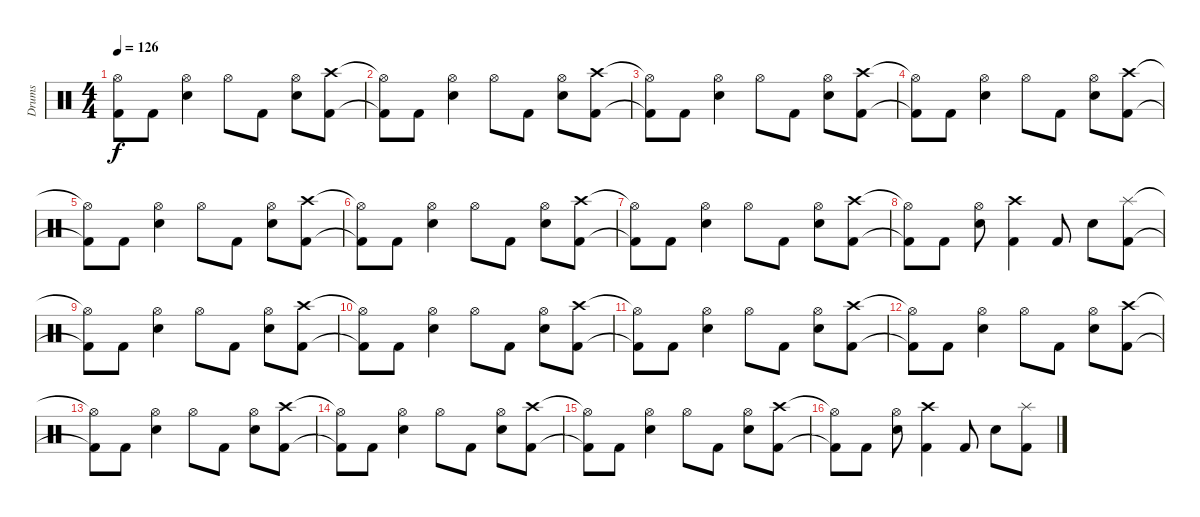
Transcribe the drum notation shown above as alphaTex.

\track ("Drums" "Drums") {instrument percussion}
\staff {score}
\articulation defaults
\ts (4 4)
\tempo 126
\clef neutral
\ks c
("Hi-Hat (open)"{t} "Kick (hit) 2"{t}).8{dy f} "Kick (hit) 2".8 ("Hi-Hat (open)" "Snare (hit) 2").4 "Hi-Hat (open)".8 "Kick (hit) 2".8 ("Hi-Hat (open)" "Snare (hit) 2").8 ("Crash high (hit)" "Kick (hit) 2").8 |
("Hi-Hat (open)"{t} "Kick (hit) 2"{t}).8 "Kick (hit) 2".8 ("Hi-Hat (open)" "Snare (hit) 2").4 "Hi-Hat (open)".8 "Kick (hit) 2".8 ("Hi-Hat (open)" "Snare (hit) 2").8 ("Crash high (hit)" "Kick (hit) 2").8 |
("Hi-Hat (open)"{t} "Kick (hit) 2"{t}).8 "Kick (hit) 2".8 ("Hi-Hat (open)" "Snare (hit) 2").4 "Hi-Hat (open)".8 "Kick (hit) 2".8 ("Hi-Hat (open)" "Snare (hit) 2").8 ("Crash high (hit)" "Kick (hit) 2").8 |
("Hi-Hat (open)"{t} "Kick (hit) 2"{t}).8 "Kick (hit) 2".8 ("Hi-Hat (open)" "Snare (hit) 2").4 "Hi-Hat (open)".8 "Kick (hit) 2".8 ("Hi-Hat (open)" "Snare (hit) 2").8 ("Crash high (hit)" "Kick (hit) 2").8 |
("Hi-Hat (open)"{t} "Kick (hit) 2"{t}).8 "Kick (hit) 2".8 ("Hi-Hat (open)" "Snare (hit) 2").4 "Hi-Hat (open)".8 "Kick (hit) 2".8 ("Hi-Hat (open)" "Snare (hit) 2").8 ("Crash high (hit)" "Kick (hit) 2").8 |
("Hi-Hat (open)"{t} "Kick (hit) 2"{t}).8 "Kick (hit) 2".8 ("Hi-Hat (open)" "Snare (hit) 2").4 "Hi-Hat (open)".8 "Kick (hit) 2".8 ("Hi-Hat (open)" "Snare (hit) 2").8 ("Crash high (hit)" "Kick (hit) 2").8 |
("Hi-Hat (open)"{t} "Kick (hit) 2"{t}).8 "Kick (hit) 2".8 ("Hi-Hat (open)" "Snare (hit) 2").4 "Hi-Hat (open)".8 "Kick (hit) 2".8 ("Hi-Hat (open)" "Snare (hit) 2").8 ("Crash high (hit)" "Kick (hit) 2").8 |
("Hi-Hat (open)"{t} "Kick (hit) 2"{t}).8 "Kick (hit) 2".8 ("Hi-Hat (open)" "Snare (hit) 2").8 ("Crash high (hit)" "Kick (hit) 2").4 "Kick (hit) 2".8 "Snare (hit) 2".8 ("Splash (hit)" "Kick (hit) 2").8 |
("Hi-Hat (open)"{t} "Kick (hit) 2"{t}).8 "Kick (hit) 2".8 ("Hi-Hat (open)" "Snare (hit) 2").4 "Hi-Hat (open)".8 "Kick (hit) 2".8 ("Hi-Hat (open)" "Snare (hit) 2").8 ("Crash high (hit)" "Kick (hit) 2").8 |
("Hi-Hat (open)"{t} "Kick (hit) 2"{t}).8 "Kick (hit) 2".8 ("Hi-Hat (open)" "Snare (hit) 2").4 "Hi-Hat (open)".8 "Kick (hit) 2".8 ("Hi-Hat (open)" "Snare (hit) 2").8 ("Crash high (hit)" "Kick (hit) 2").8 |
("Hi-Hat (open)"{t} "Kick (hit) 2"{t}).8 "Kick (hit) 2".8 ("Hi-Hat (open)" "Snare (hit) 2").4 "Hi-Hat (open)".8 "Kick (hit) 2".8 ("Hi-Hat (open)" "Snare (hit) 2").8 ("Crash high (hit)" "Kick (hit) 2").8 |
("Hi-Hat (open)"{t} "Kick (hit) 2"{t}).8 "Kick (hit) 2".8 ("Hi-Hat (open)" "Snare (hit) 2").4 "Hi-Hat (open)".8 "Kick (hit) 2".8 ("Hi-Hat (open)" "Snare (hit) 2").8 ("Crash high (hit)" "Kick (hit) 2").8 |
("Hi-Hat (open)"{t} "Kick (hit) 2"{t}).8 "Kick (hit) 2".8 ("Hi-Hat (open)" "Snare (hit) 2").4 "Hi-Hat (open)".8 "Kick (hit) 2".8 ("Hi-Hat (open)" "Snare (hit) 2").8 ("Crash high (hit)" "Kick (hit) 2").8 |
("Hi-Hat (open)"{t} "Kick (hit) 2"{t}).8 "Kick (hit) 2".8 ("Hi-Hat (open)" "Snare (hit) 2").4 "Hi-Hat (open)".8 "Kick (hit) 2".8 ("Hi-Hat (open)" "Snare (hit) 2").8 ("Crash high (hit)" "Kick (hit) 2").8 |
("Hi-Hat (open)"{t} "Kick (hit) 2"{t}).8 "Kick (hit) 2".8 ("Hi-Hat (open)" "Snare (hit) 2").4 "Hi-Hat (open)".8 "Kick (hit) 2".8 ("Hi-Hat (open)" "Snare (hit) 2").8 ("Crash high (hit)" "Kick (hit) 2").8 |
("Hi-Hat (open)"{t} "Kick (hit) 2"{t}).8 "Kick (hit) 2".8 ("Hi-Hat (open)" "Snare (hit) 2").8 ("Crash high (hit)" "Kick (hit) 2").4 "Kick (hit) 2".8 "Snare (hit) 2".8 ("Splash (hit)" "Kick (hit) 2").8
